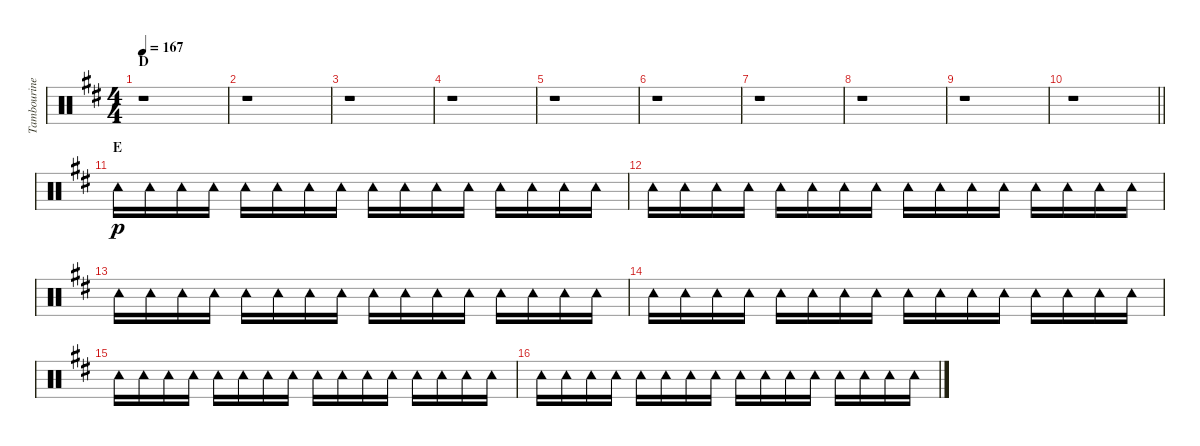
\track ("Tambourine" "Tambourine") {instrument percussion}
\staff {score}
\articulation defaults
\ts (4 4)
\section ("" "D")
\tempo 167
\clef neutral
\ks d
r.1{dy p} |
r.1 |
r.1 |
r.1 |
r.1 |
r.1 |
r.1 |
r.1 |
r.1 |
\barLineRight lightlight
r.1 |
\section ("" "E")
"Tambourine (hit)".16 "Tambourine (hit)".16 "Tambourine (hit)".16 "Tambourine (hit)".16 "Tambourine (hit)".16 "Tambourine (hit)".16 "Tambourine (hit)".16 "Tambourine (hit)".16 "Tambourine (hit)".16 "Tambourine (hit)".16 "Tambourine (hit)".16 "Tambourine (hit)".16 "Tambourine (hit)".16 "Tambourine (hit)".16 "Tambourine (hit)".16 "Tambourine (hit)".16 |
"Tambourine (hit)".16 "Tambourine (hit)".16 "Tambourine (hit)".16 "Tambourine (hit)".16 "Tambourine (hit)".16 "Tambourine (hit)".16 "Tambourine (hit)".16 "Tambourine (hit)".16 "Tambourine (hit)".16 "Tambourine (hit)".16 "Tambourine (hit)".16 "Tambourine (hit)".16 "Tambourine (hit)".16 "Tambourine (hit)".16 "Tambourine (hit)".16 "Tambourine (hit)".16 |
"Tambourine (hit)".16 "Tambourine (hit)".16 "Tambourine (hit)".16 "Tambourine (hit)".16 "Tambourine (hit)".16 "Tambourine (hit)".16 "Tambourine (hit)".16 "Tambourine (hit)".16 "Tambourine (hit)".16 "Tambourine (hit)".16 "Tambourine (hit)".16 "Tambourine (hit)".16 "Tambourine (hit)".16 "Tambourine (hit)".16 "Tambourine (hit)".16 "Tambourine (hit)".16 |
"Tambourine (hit)".16 "Tambourine (hit)".16 "Tambourine (hit)".16 "Tambourine (hit)".16 "Tambourine (hit)".16 "Tambourine (hit)".16 "Tambourine (hit)".16 "Tambourine (hit)".16 "Tambourine (hit)".16 "Tambourine (hit)".16 "Tambourine (hit)".16 "Tambourine (hit)".16 "Tambourine (hit)".16 "Tambourine (hit)".16 "Tambourine (hit)".16 "Tambourine (hit)".16 |
"Tambourine (hit)".16 "Tambourine (hit)".16 "Tambourine (hit)".16 "Tambourine (hit)".16 "Tambourine (hit)".16 "Tambourine (hit)".16 "Tambourine (hit)".16 "Tambourine (hit)".16 "Tambourine (hit)".16 "Tambourine (hit)".16 "Tambourine (hit)".16 "Tambourine (hit)".16 "Tambourine (hit)".16 "Tambourine (hit)".16 "Tambourine (hit)".16 "Tambourine (hit)".16 |
"Tambourine (hit)".16 "Tambourine (hit)".16 "Tambourine (hit)".16 "Tambourine (hit)".16 "Tambourine (hit)".16 "Tambourine (hit)".16 "Tambourine (hit)".16 "Tambourine (hit)".16 "Tambourine (hit)".16 "Tambourine (hit)".16 "Tambourine (hit)".16 "Tambourine (hit)".16 "Tambourine (hit)".16 "Tambourine (hit)".16 "Tambourine (hit)".16 "Tambourine (hit)".16
